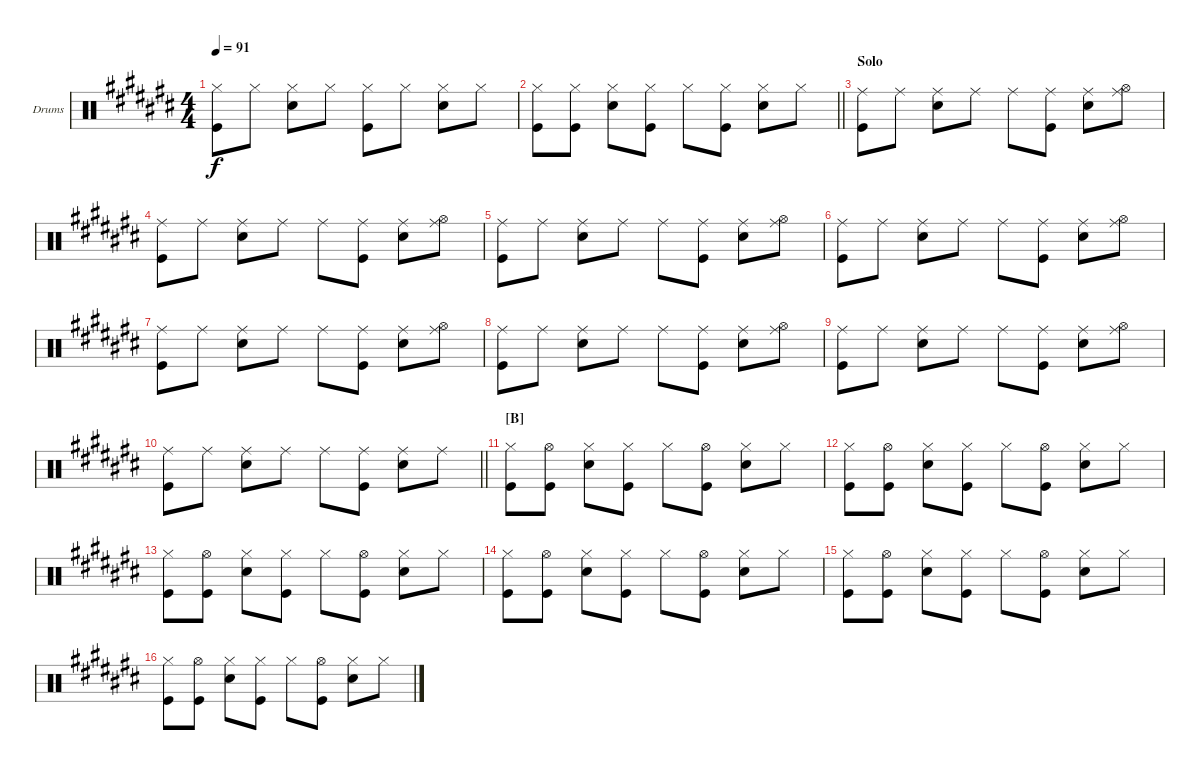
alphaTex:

\bracketExtendMode groupsimilarinstruments
\firstSystemTrackNameOrientation horizontal
\otherSystemsTrackNameOrientation horizontal
\track ("Fabrizio Moretti" "Drums") {instrument percussion}
\staff {score}
\articulation defaults
\ts (4 4)
\tempo 91
\clef neutral
\ks c#
("Hi-Hat (closed)" "Kick (hit)").8{dy f} "Hi-Hat (closed)".8 ("Hi-Hat (closed)" "Snare (hit) 2").8 "Hi-Hat (closed)".8 ("Hi-Hat (closed)" "Kick (hit)").8 "Hi-Hat (closed)".8 ("Hi-Hat (closed)" "Snare (hit) 2").8 "Hi-Hat (closed)".8 |
\barLineRight lightlight
("Hi-Hat (closed)" "Kick (hit)").8 ("Hi-Hat (closed)" "Kick (hit)").8 ("Hi-Hat (closed)" "Snare (hit) 2").8 ("Hi-Hat (closed)" "Kick (hit)").8 "Hi-Hat (closed)".8 ("Hi-Hat (closed)" "Kick (hit)").8 ("Hi-Hat (closed)" "Snare (hit) 2").8 "Hi-Hat (closed)".8 |
\section ("" "Solo")
("Kick (hit)" "Ride (middle)").8 "Ride (middle)".8 ("Snare (hit) 2" "Ride (middle)").8 "Ride (middle)".8 "Ride (middle)".8 ("Kick (hit)" "Ride (middle)").8 ("Snare (hit) 2" "Ride (middle)").8 ("Hi-Hat (open)" "Ride (middle)").8 |
("Kick (hit)" "Ride (middle)").8 "Ride (middle)".8 ("Snare (hit) 2" "Ride (middle)").8 "Ride (middle)".8 "Ride (middle)".8 ("Kick (hit)" "Ride (middle)").8 ("Snare (hit) 2" "Ride (middle)").8 ("Hi-Hat (open)" "Ride (middle)").8 |
("Kick (hit)" "Ride (middle)").8 "Ride (middle)".8 ("Snare (hit) 2" "Ride (middle)").8 "Ride (middle)".8 "Ride (middle)".8 ("Kick (hit)" "Ride (middle)").8 ("Snare (hit) 2" "Ride (middle)").8 ("Hi-Hat (open)" "Ride (middle)").8 |
("Kick (hit)" "Ride (middle)").8 "Ride (middle)".8 ("Snare (hit) 2" "Ride (middle)").8 "Ride (middle)".8 "Ride (middle)".8 ("Kick (hit)" "Ride (middle)").8 ("Snare (hit) 2" "Ride (middle)").8 ("Hi-Hat (open)" "Ride (middle)").8 |
("Kick (hit)" "Ride (middle)").8 "Ride (middle)".8 ("Snare (hit) 2" "Ride (middle)").8 "Ride (middle)".8 "Ride (middle)".8 ("Kick (hit)" "Ride (middle)").8 ("Snare (hit) 2" "Ride (middle)").8 ("Hi-Hat (open)" "Ride (middle)").8 |
("Kick (hit)" "Ride (middle)").8 "Ride (middle)".8 ("Snare (hit) 2" "Ride (middle)").8 "Ride (middle)".8 "Ride (middle)".8 ("Kick (hit)" "Ride (middle)").8 ("Snare (hit) 2" "Ride (middle)").8 ("Hi-Hat (open)" "Ride (middle)").8 |
("Kick (hit)" "Ride (middle)").8 "Ride (middle)".8 ("Snare (hit) 2" "Ride (middle)").8 "Ride (middle)".8 "Ride (middle)".8 ("Kick (hit)" "Ride (middle)").8 ("Snare (hit) 2" "Ride (middle)").8 ("Hi-Hat (open)" "Ride (middle)").8 |
\barLineRight lightlight
("Kick (hit)" "Ride (middle)").8 "Ride (middle)".8 ("Snare (hit) 2" "Ride (middle)").8 "Ride (middle)".8 "Ride (middle)".8 ("Kick (hit)" "Ride (middle)").8 ("Snare (hit) 2" "Ride (middle)").8 "Ride (middle)".8 |
\section ("B" "")
("Hi-Hat (closed)" "Kick (hit)").8 ("Hi-Hat (open)" "Kick (hit)").8 ("Snare (hit) 2" "Hi-Hat (closed)").8 ("Hi-Hat (closed)" "Kick (hit)").8 "Hi-Hat (closed)".8 ("Hi-Hat (open)" "Kick (hit)").8 ("Snare (hit) 2" "Hi-Hat (closed)").8 "Hi-Hat (closed)".8 |
("Hi-Hat (closed)" "Kick (hit)").8 ("Hi-Hat (open)" "Kick (hit)").8 ("Snare (hit) 2" "Hi-Hat (closed)").8 ("Hi-Hat (closed)" "Kick (hit)").8 "Hi-Hat (closed)".8 ("Hi-Hat (open)" "Kick (hit)").8 ("Snare (hit) 2" "Hi-Hat (closed)").8 "Hi-Hat (closed)".8 |
("Hi-Hat (closed)" "Kick (hit)").8 ("Hi-Hat (open)" "Kick (hit)").8 ("Snare (hit) 2" "Hi-Hat (closed)").8 ("Hi-Hat (closed)" "Kick (hit)").8 "Hi-Hat (closed)".8 ("Hi-Hat (open)" "Kick (hit)").8 ("Snare (hit) 2" "Hi-Hat (closed)").8 "Hi-Hat (closed)".8 |
("Hi-Hat (closed)" "Kick (hit)").8 ("Hi-Hat (open)" "Kick (hit)").8 ("Snare (hit) 2" "Hi-Hat (closed)").8 ("Hi-Hat (closed)" "Kick (hit)").8 "Hi-Hat (closed)".8 ("Hi-Hat (open)" "Kick (hit)").8 ("Snare (hit) 2" "Hi-Hat (closed)").8 "Hi-Hat (closed)".8 |
("Hi-Hat (closed)" "Kick (hit)").8 ("Hi-Hat (open)" "Kick (hit)").8 ("Snare (hit) 2" "Hi-Hat (closed)").8 ("Hi-Hat (closed)" "Kick (hit)").8 "Hi-Hat (closed)".8 ("Hi-Hat (open)" "Kick (hit)").8 ("Snare (hit) 2" "Hi-Hat (closed)").8 "Hi-Hat (closed)".8 |
("Hi-Hat (closed)" "Kick (hit)").8 ("Hi-Hat (open)" "Kick (hit)").8 ("Snare (hit) 2" "Hi-Hat (closed)").8 ("Hi-Hat (closed)" "Kick (hit)").8 "Hi-Hat (closed)".8 ("Hi-Hat (open)" "Kick (hit)").8 ("Snare (hit) 2" "Hi-Hat (closed)").8 "Hi-Hat (closed)".8
